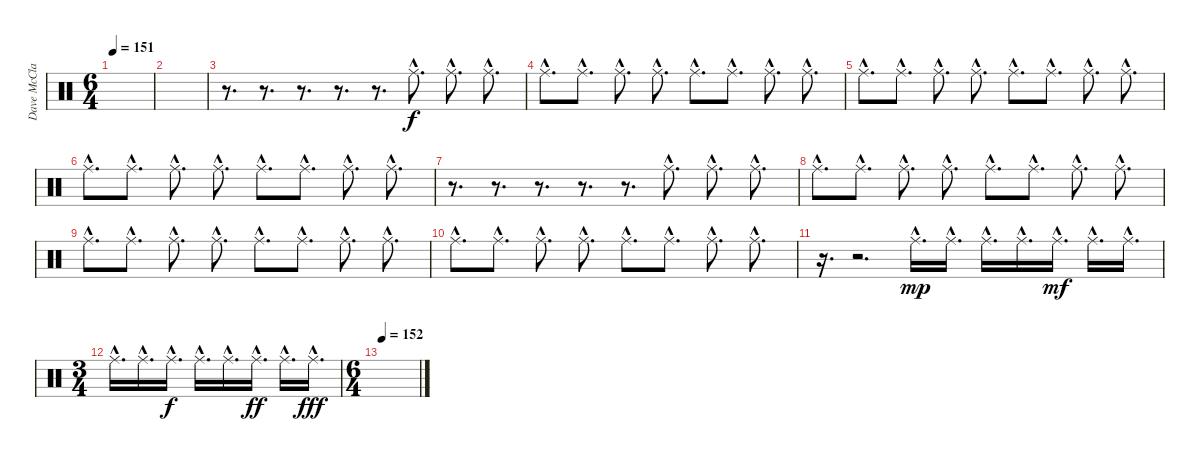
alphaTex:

\track ("Dave McClain" "Dave McCla") {instrument percussion}
\staff {score}
\articulation defaults
\ts (6 4)
\tempo 151
\clef neutral
\ks c
|
|
r.8{d} r.8{d} r.8{d} r.8{d} r.8{d} "Ride (middle)"{hac}.8{d} "Ride (middle)"{hac}.8{d} "Ride (middle)"{hac}.8{d} |
"Ride (middle)"{hac}.8{d} "Ride (middle)"{hac}.8{d} "Ride (middle)"{hac}.8{d} "Ride (middle)"{hac}.8{d} "Ride (middle)"{hac}.8{d} "Ride (middle)"{hac}.8{d} "Ride (middle)"{hac}.8{d} "Ride (middle)"{hac}.8{d} |
"Ride (middle)"{hac}.8{d} "Ride (middle)"{hac}.8{d} "Ride (middle)"{hac}.8{d} "Ride (middle)"{hac}.8{d} "Ride (middle)"{hac}.8{d} "Ride (middle)"{hac}.8{d} "Ride (middle)"{hac}.8{d} "Ride (middle)"{hac}.8{d} |
"Ride (middle)"{hac}.8{d} "Ride (middle)"{hac}.8{d} "Ride (middle)"{hac}.8{d} "Ride (middle)"{hac}.8{d} "Ride (middle)"{hac}.8{d} "Ride (middle)"{hac}.8{d} "Ride (middle)"{hac}.8{d} "Ride (middle)"{hac}.8{d} |
r.8{d} r.8{d} r.8{d} r.8{d} r.8{d} "Ride (middle)"{hac}.8{d} "Ride (middle)"{hac}.8{d} "Ride (middle)"{hac}.8{d} |
"Ride (middle)"{hac}.8{d} "Ride (middle)"{hac}.8{d} "Ride (middle)"{hac}.8{d} "Ride (middle)"{hac}.8{d} "Ride (middle)"{hac}.8{d} "Ride (middle)"{hac}.8{d} "Ride (middle)"{hac}.8{d} "Ride (middle)"{hac}.8{d} |
"Ride (middle)"{hac}.8{d} "Ride (middle)"{hac}.8{d} "Ride (middle)"{hac}.8{d} "Ride (middle)"{hac}.8{d} "Ride (middle)"{hac}.8{d} "Ride (middle)"{hac}.8{d} "Ride (middle)"{hac}.8{d} "Ride (middle)"{hac}.8{d} |
"Ride (middle)"{hac}.8{d} "Ride (middle)"{hac}.8{d} "Ride (middle)"{hac}.8{d} "Ride (middle)"{hac}.8{d} "Ride (middle)"{hac}.8{d} "Ride (middle)"{hac}.8{d} "Ride (middle)"{hac}.8{d} "Ride (middle)"{hac}.8{d} |
r.16{d} r.2{d} "Ride (middle)"{hac}.16{d dy mp} "Ride (middle)"{hac}.16{d} "Ride (middle)"{hac}.16{d} "Ride (middle)"{hac}.16{d} "Ride (middle)"{hac}.16{d dy mf} "Ride (middle)"{hac}.16{d} "Ride (middle)"{hac}.16{d} |
\ts (3 4)
"Ride (middle)"{hac}.16{d} "Ride (middle)"{hac}.16{d} "Ride (middle)"{hac}.16{d dy f} "Ride (middle)"{hac}.16{d} "Ride (middle)"{hac}.16{d} "Ride (middle)"{hac}.16{d dy ff} "Ride (middle)"{hac}.16{d} "Ride (middle)"{hac}.16{d dy fff} |
\ts (6 4)
\tempo 152
